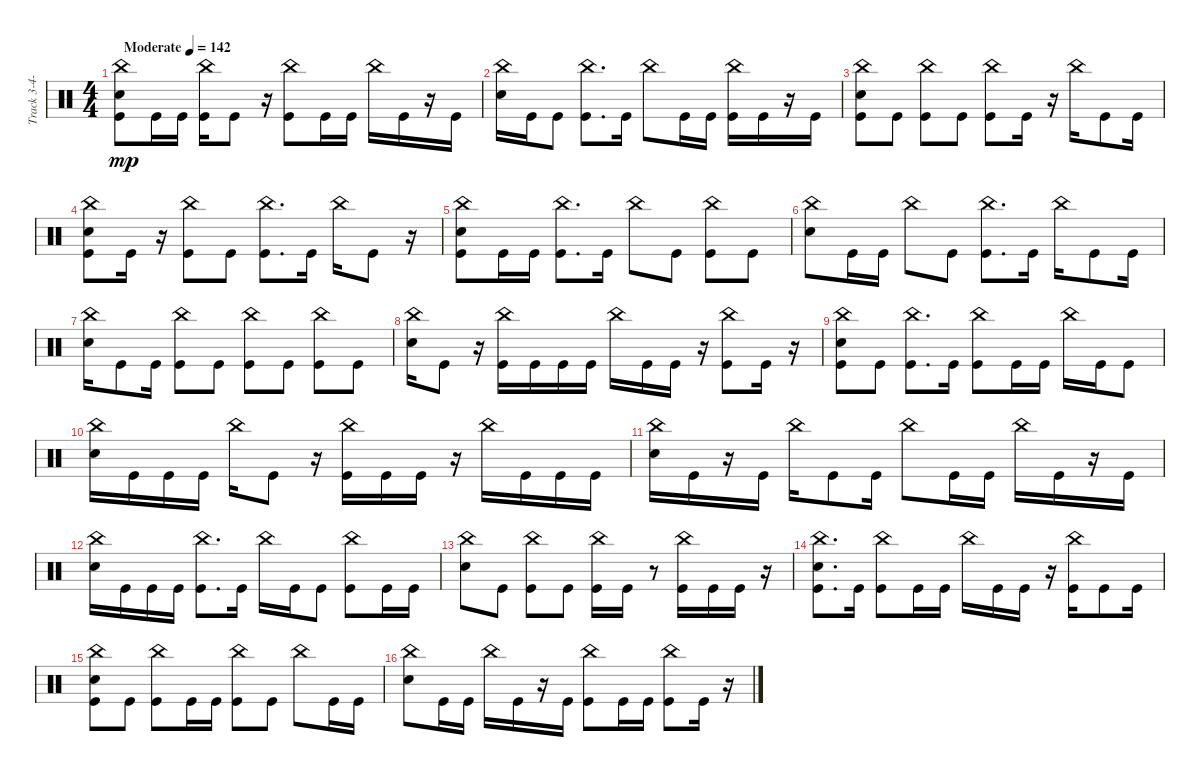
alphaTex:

\track ("Track 3-4-5-6-7" "Track 3-4-") {instrument percussion}
\staff {score}
\articulation defaults
\ts (4 4)
\tempo (142 "Moderate")
\clef neutral
\ks c
("Kick (hit)" "Electric Snare (hit)" "China (hit)").8{dy mp} "Kick (hit)".16 "Kick (hit)".16 ("Kick (hit)" "China (hit)").16 "Kick (hit)".8 r.16 ("Kick (hit)" "China (hit)").8 "Kick (hit)".16 "Kick (hit)".16 "China (hit)".16 "Kick (hit)".16 r.16 "Kick (hit)".16 |
("Electric Snare (hit)" "China (hit)").16 "Kick (hit)".16 "Kick (hit)".8 ("Kick (hit)" "China (hit)").8{d} "Kick (hit)".16 "China (hit)".8 "Kick (hit)".16 "Kick (hit)".16 ("Kick (hit)" "China (hit)").16 "Kick (hit)".16 r.16 "Kick (hit)".16 |
("Kick (hit)" "Electric Snare (hit)" "China (hit)").8 "Kick (hit)".8 ("Kick (hit)" "China (hit)").8 "Kick (hit)".8 ("Kick (hit)" "China (hit)").8 "Kick (hit)".16 r.16 "China (hit)".16 "Kick (hit)".8 "Kick (hit)".16 |
("Kick (hit)" "Electric Snare (hit)" "China (hit)").8 "Kick (hit)".16 r.16 ("Kick (hit)" "China (hit)").8 "Kick (hit)".8 ("Kick (hit)" "China (hit)").8{d} "Kick (hit)".16 "China (hit)".16 "Kick (hit)".8 r.16 |
("Kick (hit)" "Electric Snare (hit)" "China (hit)").8 "Kick (hit)".16 "Kick (hit)".16 ("Kick (hit)" "China (hit)").8{d} "Kick (hit)".16 "China (hit)".8 "Kick (hit)".8 ("Kick (hit)" "China (hit)").8 "Kick (hit)".8 |
("Electric Snare (hit)" "China (hit)").8 "Kick (hit)".16 "Kick (hit)".16 "China (hit)".8 "Kick (hit)".8 ("Kick (hit)" "China (hit)").8{d} "Kick (hit)".16 "China (hit)".16 "Kick (hit)".8 "Kick (hit)".16 |
("Electric Snare (hit)" "China (hit)").16 "Kick (hit)".8 "Kick (hit)".16 ("Kick (hit)" "China (hit)").8 "Kick (hit)".8 ("Kick (hit)" "China (hit)").8 "Kick (hit)".8 ("Kick (hit)" "China (hit)").8 "Kick (hit)".8 |
("Electric Snare (hit)" "China (hit)").16 "Kick (hit)".8 r.16 ("Kick (hit)" "China (hit)").16 "Kick (hit)".16 "Kick (hit)".16 "Kick (hit)".16 "China (hit)".16 "Kick (hit)".16 "Kick (hit)".16 r.16 ("Kick (hit)" "China (hit)").8 "Kick (hit)".16 r.16 |
("Kick (hit)" "Electric Snare (hit)" "China (hit)").8 "Kick (hit)".8 ("Kick (hit)" "China (hit)").8{d} "Kick (hit)".16 ("Kick (hit)" "China (hit)").8 "Kick (hit)".16 "Kick (hit)".16 "China (hit)".16 "Kick (hit)".16 "Kick (hit)".8 |
("Electric Snare (hit)" "China (hit)").16 "Kick (hit)".16 "Kick (hit)".16 "Kick (hit)".16 "China (hit)".16 "Kick (hit)".8 r.16 ("Kick (hit)" "China (hit)").16 "Kick (hit)".16 "Kick (hit)".16 r.16 "China (hit)".16 "Kick (hit)".16 "Kick (hit)".16 "Kick (hit)".16 |
("Electric Snare (hit)" "China (hit)").16 "Kick (hit)".16 r.16 "Kick (hit)".16 "China (hit)".16 "Kick (hit)".8 "Kick (hit)".16 "China (hit)".8 "Kick (hit)".16 "Kick (hit)".16 "China (hit)".16 "Kick (hit)".16 r.16 "Kick (hit)".16 |
("Electric Snare (hit)" "China (hit)").16 "Kick (hit)".16 "Kick (hit)".16 "Kick (hit)".16 ("Kick (hit)" "China (hit)").8{d} "Kick (hit)".16 "China (hit)".16 "Kick (hit)".16 "Kick (hit)".8 ("Kick (hit)" "China (hit)").8 "Kick (hit)".16 "Kick (hit)".16 |
("Electric Snare (hit)" "China (hit)").8 "Kick (hit)".8 ("Kick (hit)" "China (hit)").8 "Kick (hit)".8 ("Kick (hit)" "China (hit)").16 "Kick (hit)".16 r.8 ("Kick (hit)" "China (hit)").16 "Kick (hit)".16 "Kick (hit)".16 r.16 |
("Kick (hit)" "Electric Snare (hit)" "China (hit)").8{d} "Kick (hit)".16 ("Kick (hit)" "China (hit)").8 "Kick (hit)".16 "Kick (hit)".16 "China (hit)".16 "Kick (hit)".16 "Kick (hit)".16 r.16 ("Kick (hit)" "China (hit)").16 "Kick (hit)".8 "Kick (hit)".16 |
("Kick (hit)" "Electric Snare (hit)" "China (hit)").8 "Kick (hit)".8 ("Kick (hit)" "China (hit)").8 "Kick (hit)".16 "Kick (hit)".16 ("Kick (hit)" "China (hit)").8 "Kick (hit)".8 "China (hit)".8 "Kick (hit)".16 "Kick (hit)".16 |
("Electric Snare (hit)" "China (hit)").8 "Kick (hit)".16 "Kick (hit)".16 "China (hit)".16 "Kick (hit)".16 r.16 "Kick (hit)".16 ("Kick (hit)" "China (hit)").8 "Kick (hit)".16 "Kick (hit)".16 ("Kick (hit)" "China (hit)").8 "Kick (hit)".16 r.16
